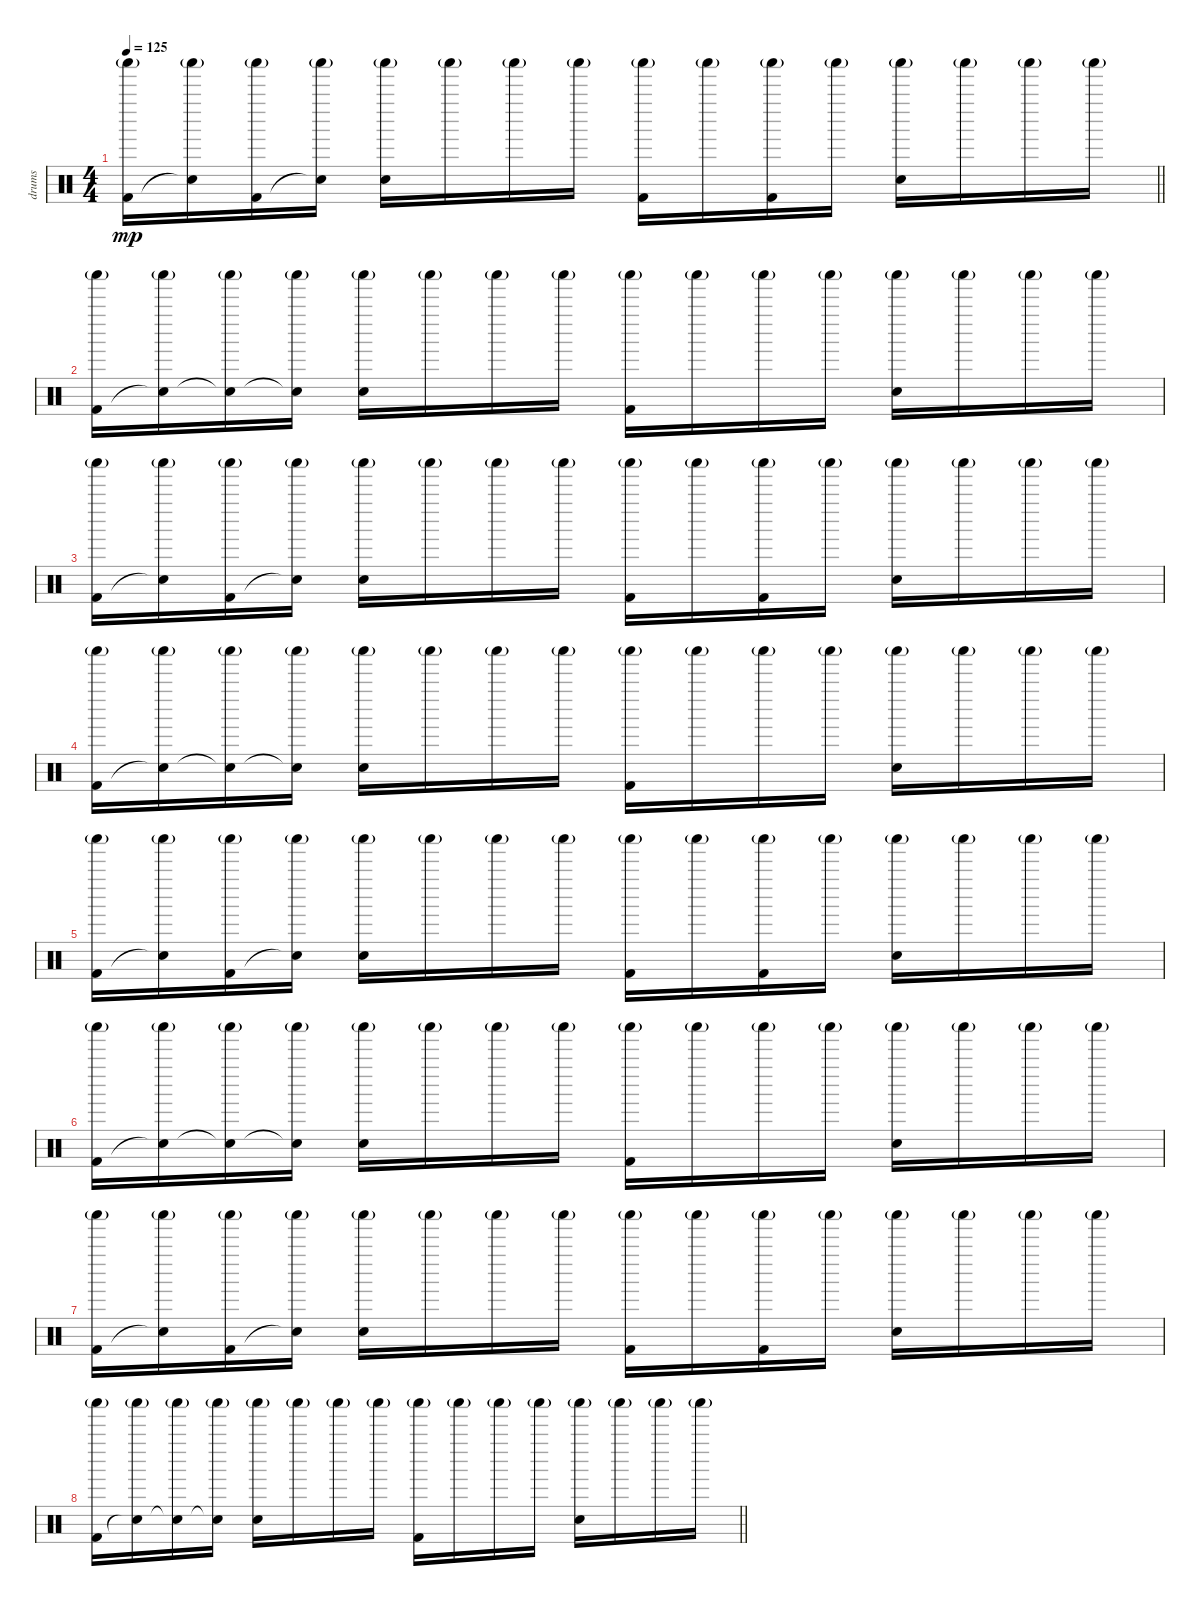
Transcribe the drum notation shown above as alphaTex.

\track ("drums" "drums") {instrument percussion}
\staff {score}
\articulation defaults
\ts (4 4)
\tempo 125
\clef neutral
\barLineRight lightlight
\ks c
("Shaker (hit)"{g} "Kick (hit) 2").16{dy mp} ("Shaker (hit)"{g} "Snare (hit)"{t}).16 ("Shaker (hit)"{g} "Kick (hit) 2").16 ("Shaker (hit)"{g} "Snare (hit)"{t}).16 ("Shaker (hit)"{g} "Snare (hit) 2").16 "Shaker (hit)"{g}.16 "Shaker (hit)"{g}.16 "Shaker (hit)"{g}.16 ("Shaker (hit)"{g} "Kick (hit) 2").16 "Shaker (hit)"{g}.16 ("Shaker (hit)"{g} "Kick (hit) 2").16 "Shaker (hit)"{g}.16 ("Shaker (hit)"{g} "Snare (hit) 2").16 "Shaker (hit)"{g}.16 "Shaker (hit)"{g}.16 "Shaker (hit)"{g}.16 |
("Shaker (hit)"{g} "Kick (hit) 2").16 ("Shaker (hit)"{g} "Snare (hit)"{t}).16 ("Shaker (hit)"{g} "Snare (hit)"{t}).16 ("Shaker (hit)"{g} "Snare (hit)"{t}).16 ("Shaker (hit)"{g} "Snare (hit) 2").16 "Shaker (hit)"{g}.16 "Shaker (hit)"{g}.16 "Shaker (hit)"{g}.16 ("Shaker (hit)"{g} "Kick (hit) 2").16 "Shaker (hit)"{g}.16 "Shaker (hit)"{g}.16 "Shaker (hit)"{g}.16 ("Shaker (hit)"{g} "Snare (hit) 2").16 "Shaker (hit)"{g}.16 "Shaker (hit)"{g}.16 "Shaker (hit)"{g}.16 |
("Shaker (hit)"{g} "Kick (hit) 2").16 ("Shaker (hit)"{g} "Snare (hit)"{t}).16 ("Shaker (hit)"{g} "Kick (hit) 2").16 ("Shaker (hit)"{g} "Snare (hit)"{t}).16 ("Shaker (hit)"{g} "Snare (hit) 2").16 "Shaker (hit)"{g}.16 "Shaker (hit)"{g}.16 "Shaker (hit)"{g}.16 ("Shaker (hit)"{g} "Kick (hit) 2").16 "Shaker (hit)"{g}.16 ("Shaker (hit)"{g} "Kick (hit) 2").16 "Shaker (hit)"{g}.16 ("Shaker (hit)"{g} "Snare (hit) 2").16 "Shaker (hit)"{g}.16 "Shaker (hit)"{g}.16 "Shaker (hit)"{g}.16 |
("Shaker (hit)"{g} "Kick (hit) 2").16 ("Shaker (hit)"{g} "Snare (hit)"{t}).16 ("Shaker (hit)"{g} "Snare (hit)"{t}).16 ("Shaker (hit)"{g} "Snare (hit)"{t}).16 ("Shaker (hit)"{g} "Snare (hit) 2").16 "Shaker (hit)"{g}.16 "Shaker (hit)"{g}.16 "Shaker (hit)"{g}.16 ("Shaker (hit)"{g} "Kick (hit) 2").16 "Shaker (hit)"{g}.16 "Shaker (hit)"{g}.16 "Shaker (hit)"{g}.16 ("Shaker (hit)"{g} "Snare (hit) 2").16 "Shaker (hit)"{g}.16 "Shaker (hit)"{g}.16 "Shaker (hit)"{g}.16 |
("Shaker (hit)"{g} "Kick (hit) 2").16 ("Shaker (hit)"{g} "Snare (hit)"{t}).16 ("Shaker (hit)"{g} "Kick (hit) 2").16 ("Shaker (hit)"{g} "Snare (hit)"{t}).16 ("Shaker (hit)"{g} "Snare (hit) 2").16 "Shaker (hit)"{g}.16 "Shaker (hit)"{g}.16 "Shaker (hit)"{g}.16 ("Shaker (hit)"{g} "Kick (hit) 2").16 "Shaker (hit)"{g}.16 ("Shaker (hit)"{g} "Kick (hit) 2").16 "Shaker (hit)"{g}.16 ("Shaker (hit)"{g} "Snare (hit) 2").16 "Shaker (hit)"{g}.16 "Shaker (hit)"{g}.16 "Shaker (hit)"{g}.16 |
("Shaker (hit)"{g} "Kick (hit) 2").16 ("Shaker (hit)"{g} "Snare (hit)"{t}).16 ("Shaker (hit)"{g} "Snare (hit)"{t}).16 ("Shaker (hit)"{g} "Snare (hit)"{t}).16 ("Shaker (hit)"{g} "Snare (hit) 2").16 "Shaker (hit)"{g}.16 "Shaker (hit)"{g}.16 "Shaker (hit)"{g}.16 ("Shaker (hit)"{g} "Kick (hit) 2").16 "Shaker (hit)"{g}.16 "Shaker (hit)"{g}.16 "Shaker (hit)"{g}.16 ("Shaker (hit)"{g} "Snare (hit) 2").16 "Shaker (hit)"{g}.16 "Shaker (hit)"{g}.16 "Shaker (hit)"{g}.16 |
("Shaker (hit)"{g} "Kick (hit) 2").16 ("Shaker (hit)"{g} "Snare (hit)"{t}).16 ("Shaker (hit)"{g} "Kick (hit) 2").16 ("Shaker (hit)"{g} "Snare (hit)"{t}).16 ("Shaker (hit)"{g} "Snare (hit) 2").16 "Shaker (hit)"{g}.16 "Shaker (hit)"{g}.16 "Shaker (hit)"{g}.16 ("Shaker (hit)"{g} "Kick (hit) 2").16 "Shaker (hit)"{g}.16 ("Shaker (hit)"{g} "Kick (hit) 2").16 "Shaker (hit)"{g}.16 ("Shaker (hit)"{g} "Snare (hit) 2").16 "Shaker (hit)"{g}.16 "Shaker (hit)"{g}.16 "Shaker (hit)"{g}.16 |
\barLineRight lightlight
("Shaker (hit)"{g} "Kick (hit) 2").16 ("Shaker (hit)"{g} "Snare (hit)"{t}).16 ("Shaker (hit)"{g} "Snare (hit)"{t}).16 ("Shaker (hit)"{g} "Snare (hit)"{t}).16 ("Shaker (hit)"{g} "Snare (hit) 2").16 "Shaker (hit)"{g}.16 "Shaker (hit)"{g}.16 "Shaker (hit)"{g}.16 ("Shaker (hit)"{g} "Kick (hit) 2").16 "Shaker (hit)"{g}.16 "Shaker (hit)"{g}.16 "Shaker (hit)"{g}.16 ("Shaker (hit)"{g} "Snare (hit) 2").16 "Shaker (hit)"{g}.16 "Shaker (hit)"{g}.16 "Shaker (hit)"{g}.16
